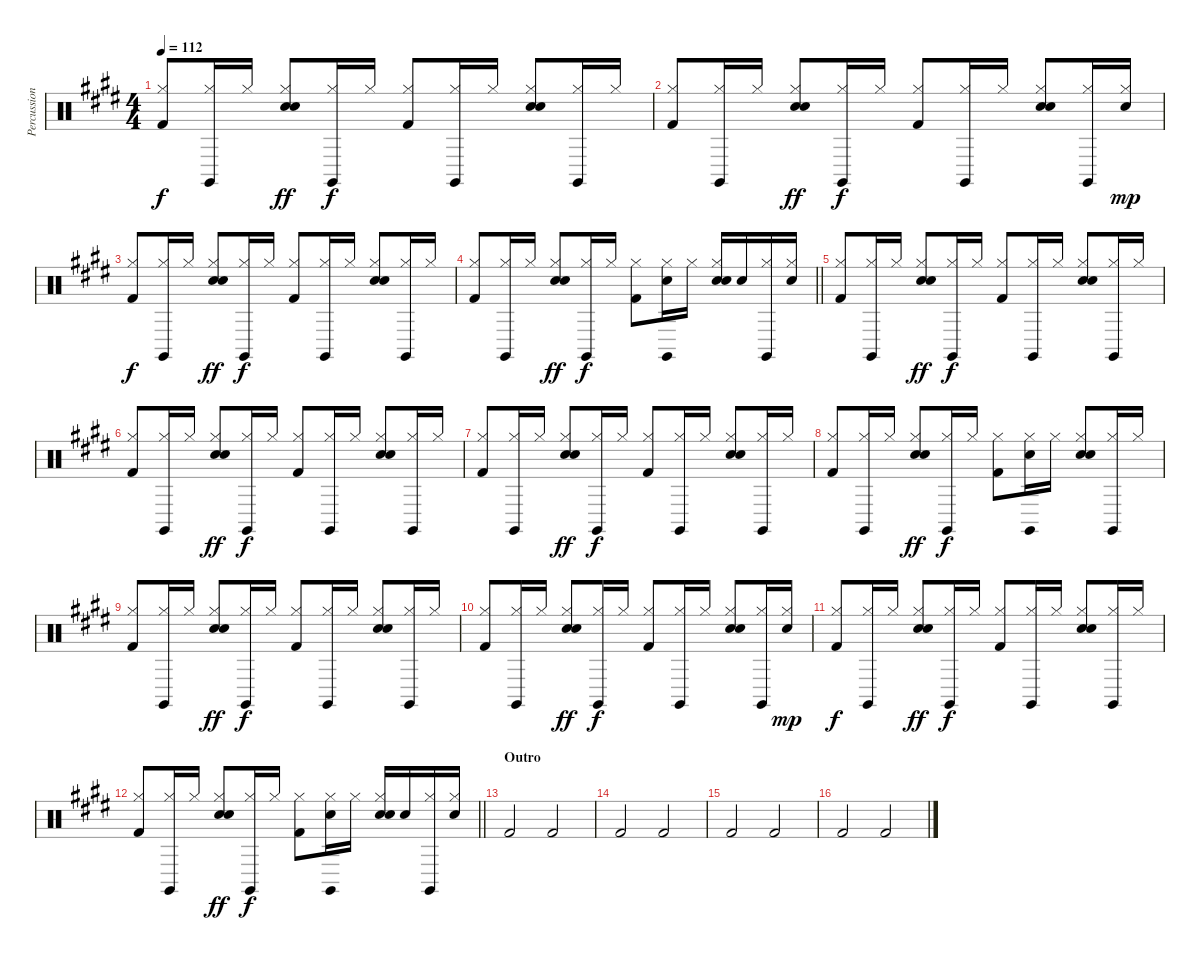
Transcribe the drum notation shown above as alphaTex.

\track ("Percussion" "Percussion") {instrument percussion}
\staff {score}
\articulation defaults
\ts (4 4)
\tempo 112
\clef neutral
\ks e
("Hi-Hat (closed)" "Kick (hit) 2").8{dy f} ("Claves (hit)" "Hi-Hat (closed)").16 "Hi-Hat (closed)".16 ("Hand Clap (hit)" "Hi-Hat (closed)" "Snare (hit) 2").8{dy ff} ("Claves (hit)" "Hi-Hat (closed)").16{dy f} "Hi-Hat (closed)".16 ("Hi-Hat (closed)" "Kick (hit) 2").8 ("Claves (hit)" "Hi-Hat (closed)").16 "Hi-Hat (closed)".16 ("Hand Clap (hit)" "Hi-Hat (closed)" "Snare (hit) 2").8 ("Claves (hit)" "Hi-Hat (closed)").16 "Hi-Hat (closed)".16 |
("Hi-Hat (closed)" "Kick (hit) 2").8 ("Claves (hit)" "Hi-Hat (closed)").16 "Hi-Hat (closed)".16 ("Hand Clap (hit)" "Hi-Hat (closed)" "Snare (hit) 2").8{dy ff} ("Claves (hit)" "Hi-Hat (closed)").16{dy f} "Hi-Hat (closed)".16 ("Hi-Hat (closed)" "Kick (hit) 2").8 ("Claves (hit)" "Hi-Hat (closed)").16 "Hi-Hat (closed)".16 ("Hand Clap (hit)" "Hi-Hat (closed)" "Snare (hit) 2").8 ("Claves (hit)" "Hi-Hat (closed)").16 ("Electric Snare (hit)" "Hi-Hat (closed)").16{dy mp} |
("Hi-Hat (closed)" "Kick (hit) 2").8{dy f} ("Claves (hit)" "Hi-Hat (closed)").16 "Hi-Hat (closed)".16 ("Hand Clap (hit)" "Hi-Hat (closed)" "Snare (hit) 2").8{dy ff} ("Claves (hit)" "Hi-Hat (closed)").16{dy f} "Hi-Hat (closed)".16 ("Hi-Hat (closed)" "Kick (hit) 2").8 ("Claves (hit)" "Hi-Hat (closed)").16 "Hi-Hat (closed)".16 ("Hand Clap (hit)" "Hi-Hat (closed)" "Snare (hit) 2").8 ("Claves (hit)" "Hi-Hat (closed)").16 "Hi-Hat (closed)".16 |
\barLineRight lightlight
("Hi-Hat (closed)" "Kick (hit) 2").8 ("Claves (hit)" "Hi-Hat (closed)").16 "Hi-Hat (closed)".16 ("Hand Clap (hit)" "Hi-Hat (closed)" "Snare (hit) 2").8{dy ff} ("Claves (hit)" "Hi-Hat (closed)").16{dy f} "Hi-Hat (closed)".16 ("Hi-Hat (closed)" "Kick (hit) 2").8 ("Claves (hit)" "Hi-Hat (closed)" "Snare (hit) 2").16 "Hi-Hat (closed)".16 ("Hand Clap (hit)" "Hi-Hat (closed)" "Snare (hit) 2").16 "Snare (hit) 2".16 ("Claves (hit)" "Hi-Hat (closed)").16 ("Hi-Hat (closed)" "Snare (hit) 2").16 |
("Hi-Hat (closed)" "Kick (hit) 2").8 ("Claves (hit)" "Hi-Hat (closed)").16 "Hi-Hat (closed)".16 ("Hand Clap (hit)" "Hi-Hat (closed)" "Snare (hit) 2").8{dy ff} ("Claves (hit)" "Hi-Hat (closed)").16{dy f} "Hi-Hat (closed)".16 ("Hi-Hat (closed)" "Kick (hit) 2").8 ("Claves (hit)" "Hi-Hat (closed)").16 "Hi-Hat (closed)".16 ("Hand Clap (hit)" "Hi-Hat (closed)" "Snare (hit) 2").8 ("Claves (hit)" "Hi-Hat (closed)").16 "Hi-Hat (closed)".16 |
("Hi-Hat (closed)" "Kick (hit) 2").8 ("Claves (hit)" "Hi-Hat (closed)").16 "Hi-Hat (closed)".16 ("Hand Clap (hit)" "Hi-Hat (closed)" "Snare (hit) 2").8{dy ff} ("Claves (hit)" "Hi-Hat (closed)").16{dy f} "Hi-Hat (closed)".16 ("Hi-Hat (closed)" "Kick (hit) 2").8 ("Claves (hit)" "Hi-Hat (closed)").16 "Hi-Hat (closed)".16 ("Hand Clap (hit)" "Hi-Hat (closed)" "Snare (hit) 2").8 ("Claves (hit)" "Hi-Hat (closed)").16 "Hi-Hat (closed)".16 |
("Hi-Hat (closed)" "Kick (hit) 2").8 ("Claves (hit)" "Hi-Hat (closed)").16 "Hi-Hat (closed)".16 ("Hand Clap (hit)" "Hi-Hat (closed)" "Snare (hit) 2").8{dy ff} ("Claves (hit)" "Hi-Hat (closed)").16{dy f} "Hi-Hat (closed)".16 ("Hi-Hat (closed)" "Kick (hit) 2").8 ("Claves (hit)" "Hi-Hat (closed)").16 "Hi-Hat (closed)".16 ("Hand Clap (hit)" "Hi-Hat (closed)" "Snare (hit) 2").8 ("Claves (hit)" "Hi-Hat (closed)").16 "Hi-Hat (closed)".16 |
("Hi-Hat (closed)" "Kick (hit) 2").8 ("Claves (hit)" "Hi-Hat (closed)").16 "Hi-Hat (closed)".16 ("Hand Clap (hit)" "Hi-Hat (closed)" "Snare (hit) 2").8{dy ff} ("Claves (hit)" "Hi-Hat (closed)").16{dy f} "Hi-Hat (closed)".16 ("Hi-Hat (closed)" "Kick (hit) 2").8 ("Claves (hit)" "Hand Clap (hit)" "Hi-Hat (closed)").16 "Hi-Hat (closed)".16 ("Hand Clap (hit)" "Hi-Hat (closed)" "Snare (hit) 2").8 ("Claves (hit)" "Hi-Hat (closed)").16 "Hi-Hat (closed)".16 |
("Hi-Hat (closed)" "Kick (hit) 2").8 ("Claves (hit)" "Hi-Hat (closed)").16 "Hi-Hat (closed)".16 ("Hand Clap (hit)" "Hi-Hat (closed)" "Snare (hit) 2").8{dy ff} ("Claves (hit)" "Hi-Hat (closed)").16{dy f} "Hi-Hat (closed)".16 ("Hi-Hat (closed)" "Kick (hit) 2").8 ("Claves (hit)" "Hi-Hat (closed)").16 "Hi-Hat (closed)".16 ("Hand Clap (hit)" "Hi-Hat (closed)" "Snare (hit) 2").8 ("Claves (hit)" "Hi-Hat (closed)").16 "Hi-Hat (closed)".16 |
("Hi-Hat (closed)" "Kick (hit) 2").8 ("Claves (hit)" "Hi-Hat (closed)").16 "Hi-Hat (closed)".16 ("Hand Clap (hit)" "Hi-Hat (closed)" "Snare (hit) 2").8{dy ff} ("Claves (hit)" "Hi-Hat (closed)").16{dy f} "Hi-Hat (closed)".16 ("Hi-Hat (closed)" "Kick (hit) 2").8 ("Claves (hit)" "Hi-Hat (closed)").16 "Hi-Hat (closed)".16 ("Hand Clap (hit)" "Hi-Hat (closed)" "Snare (hit) 2").8 ("Claves (hit)" "Hi-Hat (closed)").16 ("Electric Snare (hit)" "Hi-Hat (closed)").16{dy mp} |
("Hi-Hat (closed)" "Kick (hit) 2").8{dy f} ("Claves (hit)" "Hi-Hat (closed)").16 "Hi-Hat (closed)".16 ("Hand Clap (hit)" "Hi-Hat (closed)" "Snare (hit) 2").8{dy ff} ("Claves (hit)" "Hi-Hat (closed)").16{dy f} "Hi-Hat (closed)".16 ("Hi-Hat (closed)" "Kick (hit) 2").8 ("Claves (hit)" "Hi-Hat (closed)").16 "Hi-Hat (closed)".16 ("Hand Clap (hit)" "Hi-Hat (closed)" "Snare (hit) 2").8 ("Claves (hit)" "Hi-Hat (closed)").16 "Hi-Hat (closed)".16 |
\barLineRight lightlight
("Hi-Hat (closed)" "Kick (hit) 2").8 ("Claves (hit)" "Hi-Hat (closed)").16 "Hi-Hat (closed)".16 ("Hand Clap (hit)" "Hi-Hat (closed)" "Snare (hit) 2").8{dy ff} ("Claves (hit)" "Hi-Hat (closed)").16{dy f} "Hi-Hat (closed)".16 ("Hi-Hat (closed)" "Kick (hit) 2").8 ("Claves (hit)" "Hi-Hat (closed)" "Snare (hit) 2").16 "Hi-Hat (closed)".16 ("Hand Clap (hit)" "Hi-Hat (closed)" "Snare (hit) 2").16 "Snare (hit) 2".16 ("Claves (hit)" "Hi-Hat (closed)").16 ("Hi-Hat (closed)" "Snare (hit) 2").16 |
\section ("" "Outro")
"Kick (hit) 2".2 "Kick (hit) 2".2 |
"Kick (hit) 2".2 "Kick (hit) 2".2 |
"Kick (hit) 2".2 "Kick (hit) 2".2 |
"Kick (hit) 2".2 "Kick (hit) 2".2
